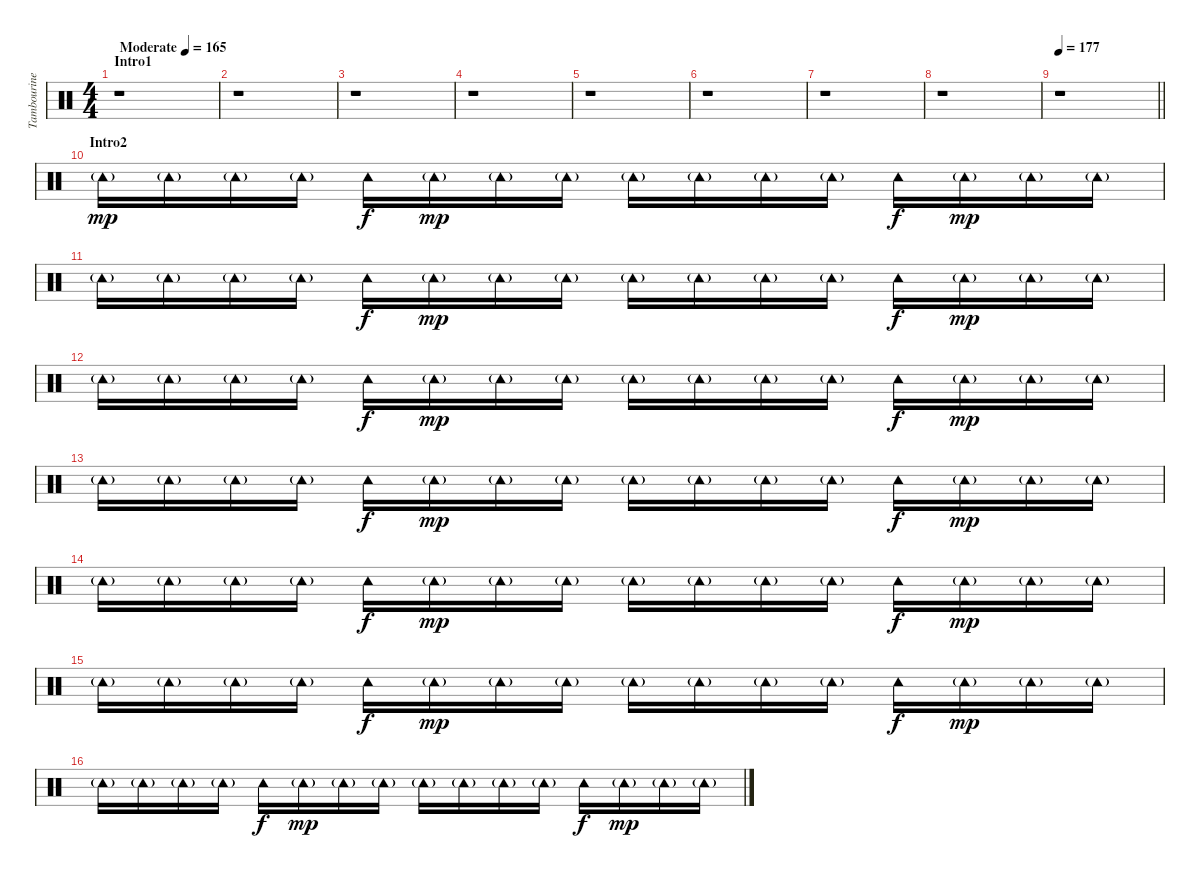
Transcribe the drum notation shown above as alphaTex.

\track ("Tambourine" "Tambourine") {instrument percussion}
\staff {score}
\articulation defaults
\ts (4 4)
\section ("" "Intro1")
\tempo (165 "Moderate")
\clef neutral
\ks c
r.1{dy mp} |
r.1 |
r.1 |
r.1 |
r.1 |
r.1 |
r.1 |
r.1 |
\tempo 177
\barLineRight lightlight
r.1 |
\section ("" "Intro2")
"Tambourine (hit)"{g}.16 "Tambourine (hit)"{g}.16 "Tambourine (hit)"{g}.16 "Tambourine (hit)"{g}.16 "Tambourine (hit)".16{dy f} "Tambourine (hit)"{g}.16{dy mp} "Tambourine (hit)"{g}.16 "Tambourine (hit)"{g}.16 "Tambourine (hit)"{g}.16 "Tambourine (hit)"{g}.16 "Tambourine (hit)"{g}.16 "Tambourine (hit)"{g}.16 "Tambourine (hit)".16{dy f} "Tambourine (hit)"{g}.16{dy mp} "Tambourine (hit)"{g}.16 "Tambourine (hit)"{g}.16 |
"Tambourine (hit)"{g}.16 "Tambourine (hit)"{g}.16 "Tambourine (hit)"{g}.16 "Tambourine (hit)"{g}.16 "Tambourine (hit)".16{dy f} "Tambourine (hit)"{g}.16{dy mp} "Tambourine (hit)"{g}.16 "Tambourine (hit)"{g}.16 "Tambourine (hit)"{g}.16 "Tambourine (hit)"{g}.16 "Tambourine (hit)"{g}.16 "Tambourine (hit)"{g}.16 "Tambourine (hit)".16{dy f} "Tambourine (hit)"{g}.16{dy mp} "Tambourine (hit)"{g}.16 "Tambourine (hit)"{g}.16 |
"Tambourine (hit)"{g}.16 "Tambourine (hit)"{g}.16 "Tambourine (hit)"{g}.16 "Tambourine (hit)"{g}.16 "Tambourine (hit)".16{dy f} "Tambourine (hit)"{g}.16{dy mp} "Tambourine (hit)"{g}.16 "Tambourine (hit)"{g}.16 "Tambourine (hit)"{g}.16 "Tambourine (hit)"{g}.16 "Tambourine (hit)"{g}.16 "Tambourine (hit)"{g}.16 "Tambourine (hit)".16{dy f} "Tambourine (hit)"{g}.16{dy mp} "Tambourine (hit)"{g}.16 "Tambourine (hit)"{g}.16 |
"Tambourine (hit)"{g}.16 "Tambourine (hit)"{g}.16 "Tambourine (hit)"{g}.16 "Tambourine (hit)"{g}.16 "Tambourine (hit)".16{dy f} "Tambourine (hit)"{g}.16{dy mp} "Tambourine (hit)"{g}.16 "Tambourine (hit)"{g}.16 "Tambourine (hit)"{g}.16 "Tambourine (hit)"{g}.16 "Tambourine (hit)"{g}.16 "Tambourine (hit)"{g}.16 "Tambourine (hit)".16{dy f} "Tambourine (hit)"{g}.16{dy mp} "Tambourine (hit)"{g}.16 "Tambourine (hit)"{g}.16 |
"Tambourine (hit)"{g}.16 "Tambourine (hit)"{g}.16 "Tambourine (hit)"{g}.16 "Tambourine (hit)"{g}.16 "Tambourine (hit)".16{dy f} "Tambourine (hit)"{g}.16{dy mp} "Tambourine (hit)"{g}.16 "Tambourine (hit)"{g}.16 "Tambourine (hit)"{g}.16 "Tambourine (hit)"{g}.16 "Tambourine (hit)"{g}.16 "Tambourine (hit)"{g}.16 "Tambourine (hit)".16{dy f} "Tambourine (hit)"{g}.16{dy mp} "Tambourine (hit)"{g}.16 "Tambourine (hit)"{g}.16 |
"Tambourine (hit)"{g}.16 "Tambourine (hit)"{g}.16 "Tambourine (hit)"{g}.16 "Tambourine (hit)"{g}.16 "Tambourine (hit)".16{dy f} "Tambourine (hit)"{g}.16{dy mp} "Tambourine (hit)"{g}.16 "Tambourine (hit)"{g}.16 "Tambourine (hit)"{g}.16 "Tambourine (hit)"{g}.16 "Tambourine (hit)"{g}.16 "Tambourine (hit)"{g}.16 "Tambourine (hit)".16{dy f} "Tambourine (hit)"{g}.16{dy mp} "Tambourine (hit)"{g}.16 "Tambourine (hit)"{g}.16 |
"Tambourine (hit)"{g}.16 "Tambourine (hit)"{g}.16 "Tambourine (hit)"{g}.16 "Tambourine (hit)"{g}.16 "Tambourine (hit)".16{dy f} "Tambourine (hit)"{g}.16{dy mp} "Tambourine (hit)"{g}.16 "Tambourine (hit)"{g}.16 "Tambourine (hit)"{g}.16 "Tambourine (hit)"{g}.16 "Tambourine (hit)"{g}.16 "Tambourine (hit)"{g}.16 "Tambourine (hit)".16{dy f} "Tambourine (hit)"{g}.16{dy mp} "Tambourine (hit)"{g}.16 "Tambourine (hit)"{g}.16
